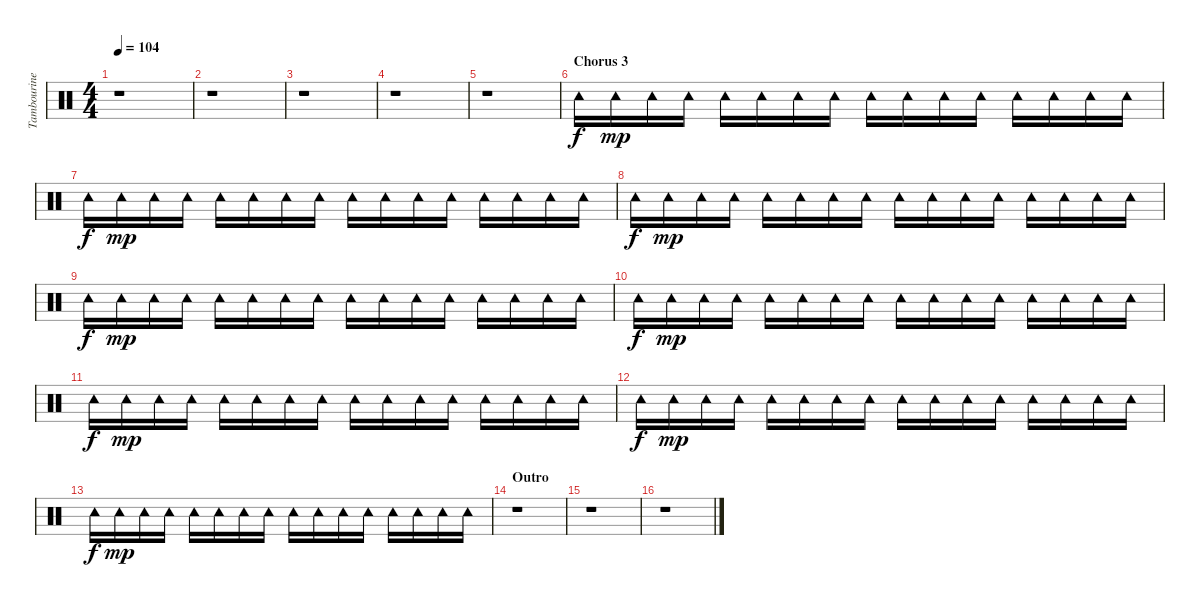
\track ("Tambourine" "Tambourine") {instrument percussion}
\staff {score}
\articulation defaults
\ts (4 4)
\tempo 104
\clef neutral
\ks c
r.1{dy mp} |
r.1 |
r.1 |
r.1 |
r.1 |
\section ("" "Chorus 3")
"Tambourine (hit)".16{dy f} "Tambourine (hit)".16{dy mp} "Tambourine (hit)".16 "Tambourine (hit)".16 "Tambourine (hit)".16 "Tambourine (hit)".16 "Tambourine (hit)".16 "Tambourine (hit)".16 "Tambourine (hit)".16 "Tambourine (hit)".16 "Tambourine (hit)".16 "Tambourine (hit)".16 "Tambourine (hit)".16 "Tambourine (hit)".16 "Tambourine (hit)".16 "Tambourine (hit)".16 |
"Tambourine (hit)".16{dy f} "Tambourine (hit)".16{dy mp} "Tambourine (hit)".16 "Tambourine (hit)".16 "Tambourine (hit)".16 "Tambourine (hit)".16 "Tambourine (hit)".16 "Tambourine (hit)".16 "Tambourine (hit)".16 "Tambourine (hit)".16 "Tambourine (hit)".16 "Tambourine (hit)".16 "Tambourine (hit)".16 "Tambourine (hit)".16 "Tambourine (hit)".16 "Tambourine (hit)".16 |
"Tambourine (hit)".16{dy f} "Tambourine (hit)".16{dy mp} "Tambourine (hit)".16 "Tambourine (hit)".16 "Tambourine (hit)".16 "Tambourine (hit)".16 "Tambourine (hit)".16 "Tambourine (hit)".16 "Tambourine (hit)".16 "Tambourine (hit)".16 "Tambourine (hit)".16 "Tambourine (hit)".16 "Tambourine (hit)".16 "Tambourine (hit)".16 "Tambourine (hit)".16 "Tambourine (hit)".16 |
"Tambourine (hit)".16{dy f} "Tambourine (hit)".16{dy mp} "Tambourine (hit)".16 "Tambourine (hit)".16 "Tambourine (hit)".16 "Tambourine (hit)".16 "Tambourine (hit)".16 "Tambourine (hit)".16 "Tambourine (hit)".16 "Tambourine (hit)".16 "Tambourine (hit)".16 "Tambourine (hit)".16 "Tambourine (hit)".16 "Tambourine (hit)".16 "Tambourine (hit)".16 "Tambourine (hit)".16 |
"Tambourine (hit)".16{dy f} "Tambourine (hit)".16{dy mp} "Tambourine (hit)".16 "Tambourine (hit)".16 "Tambourine (hit)".16 "Tambourine (hit)".16 "Tambourine (hit)".16 "Tambourine (hit)".16 "Tambourine (hit)".16 "Tambourine (hit)".16 "Tambourine (hit)".16 "Tambourine (hit)".16 "Tambourine (hit)".16 "Tambourine (hit)".16 "Tambourine (hit)".16 "Tambourine (hit)".16 |
"Tambourine (hit)".16{dy f} "Tambourine (hit)".16{dy mp} "Tambourine (hit)".16 "Tambourine (hit)".16 "Tambourine (hit)".16 "Tambourine (hit)".16 "Tambourine (hit)".16 "Tambourine (hit)".16 "Tambourine (hit)".16 "Tambourine (hit)".16 "Tambourine (hit)".16 "Tambourine (hit)".16 "Tambourine (hit)".16 "Tambourine (hit)".16 "Tambourine (hit)".16 "Tambourine (hit)".16 |
"Tambourine (hit)".16{dy f} "Tambourine (hit)".16{dy mp} "Tambourine (hit)".16 "Tambourine (hit)".16 "Tambourine (hit)".16 "Tambourine (hit)".16 "Tambourine (hit)".16 "Tambourine (hit)".16 "Tambourine (hit)".16 "Tambourine (hit)".16 "Tambourine (hit)".16 "Tambourine (hit)".16 "Tambourine (hit)".16 "Tambourine (hit)".16 "Tambourine (hit)".16 "Tambourine (hit)".16 |
"Tambourine (hit)".16{dy f} "Tambourine (hit)".16{dy mp} "Tambourine (hit)".16 "Tambourine (hit)".16 "Tambourine (hit)".16 "Tambourine (hit)".16 "Tambourine (hit)".16 "Tambourine (hit)".16 "Tambourine (hit)".16 "Tambourine (hit)".16 "Tambourine (hit)".16 "Tambourine (hit)".16 "Tambourine (hit)".16 "Tambourine (hit)".16 "Tambourine (hit)".16 "Tambourine (hit)".16 |
\section ("" "Outro")
r.1 |
r.1 |
r.1
